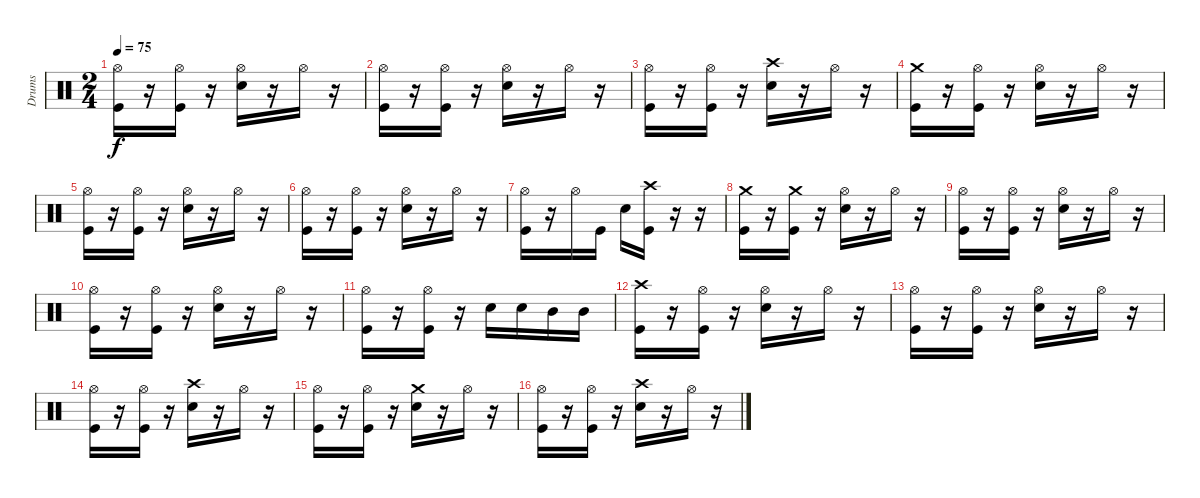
\track ("Drums" "Drums") {instrument percussion}
\staff {score}
\articulation defaults
\ts (2 4)
\tempo 75
\clef neutral
\ks c
("Hi-Hat (open)" "Kick (hit)").16{dy f} r.16 ("Hi-Hat (open)" "Kick (hit)").16 r.16 ("Hi-Hat (open)" "Electric Snare (hit)").16 r.16 "Hi-Hat (open)".16 r.16 |
("Hi-Hat (open)" "Kick (hit)").16 r.16 ("Hi-Hat (open)" "Kick (hit)").16 r.16 ("Hi-Hat (open)" "Electric Snare (hit)").16 r.16 "Hi-Hat (open)".16 r.16 |
("Hi-Hat (open)" "Kick (hit)").16 r.16 ("Hi-Hat (open)" "Kick (hit)").16 r.16 ("Crash high (hit)" "Electric Snare (hit)").16 r.16 "Hi-Hat (open)".16 r.16 |
("Crash medium (hit)" "Kick (hit)").16 r.16 ("Hi-Hat (open)" "Kick (hit)").16 r.16 ("Hi-Hat (open)" "Electric Snare (hit)").16 r.16 "Hi-Hat (open)".16 r.16 |
("Hi-Hat (open)" "Kick (hit)").16 r.16 ("Hi-Hat (open)" "Kick (hit)").16 r.16 ("Hi-Hat (open)" "Electric Snare (hit)").16 r.16 "Hi-Hat (open)".16 r.16 |
("Hi-Hat (open)" "Kick (hit)").16 r.16 ("Hi-Hat (open)" "Kick (hit)").16 r.16 ("Hi-Hat (open)" "Electric Snare (hit)").16 r.16 "Hi-Hat (open)".16 r.16 |
("Hi-Hat (open)" "Kick (hit)").16 r.16 "Hi-Hat (open)".16 "Kick (hit)".16 "Electric Snare (hit)".16 ("Crash high (hit)" "Kick (hit)").16 r.16 r.16 |
("Crash medium (hit)" "Kick (hit)").16 r.16 ("Crash medium (hit)" "Kick (hit)").16 r.16 ("Hi-Hat (open)" "Electric Snare (hit)").16 r.16 "Hi-Hat (open)".16 r.16 |
("Hi-Hat (open)" "Kick (hit)").16 r.16 ("Hi-Hat (open)" "Kick (hit)").16 r.16 ("Hi-Hat (open)" "Electric Snare (hit)").16 r.16 "Hi-Hat (open)".16 r.16 |
("Hi-Hat (open)" "Kick (hit)").16 r.16 ("Hi-Hat (open)" "Kick (hit)").16 r.16 ("Hi-Hat (open)" "Electric Snare (hit)").16 r.16 "Hi-Hat (open)".16 r.16 |
("Hi-Hat (open)" "Kick (hit)").16 r.16 ("Hi-Hat (open)" "Kick (hit)").16 r.16 "Electric Snare (hit)".16 "Electric Snare (hit)".16 "Mid Tom (hit)".16 "Mid Tom (hit)".16 |
("Crash high (hit)" "Kick (hit)").16 r.16 ("Hi-Hat (open)" "Kick (hit)").16 r.16 ("Hi-Hat (open)" "Electric Snare (hit)").16 r.16 "Hi-Hat (open)".16 r.16 |
("Hi-Hat (open)" "Kick (hit)").16 r.16 ("Hi-Hat (open)" "Kick (hit)").16 r.16 ("Hi-Hat (open)" "Electric Snare (hit)").16 r.16 "Hi-Hat (open)".16 r.16 |
("Hi-Hat (open)" "Kick (hit)").16 r.16 ("Hi-Hat (open)" "Kick (hit)").16 r.16 ("Crash high (hit)" "Electric Snare (hit)").16 r.16 "Hi-Hat (open)".16 r.16 |
("Hi-Hat (open)" "Kick (hit)").16 r.16 ("Hi-Hat (open)" "Kick (hit)").16 r.16 ("Crash medium (hit)" "Electric Snare (hit)").16 r.16 "Hi-Hat (open)".16 r.16 |
("Hi-Hat (open)" "Kick (hit)").16 r.16 ("Hi-Hat (open)" "Kick (hit)").16 r.16 ("Crash high (hit)" "Electric Snare (hit)").16 r.16 "Hi-Hat (open)".16 r.16
